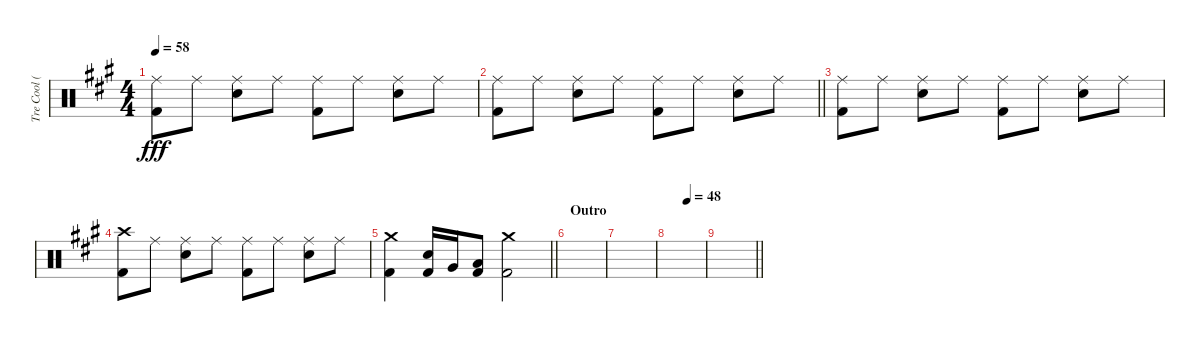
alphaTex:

\track ("Tre Cool (Drums)" "Tre Cool (") {instrument percussion}
\staff {score}
\articulation defaults
\ts (4 4)
\tempo 58
\clef neutral
\ks a
("Ride (middle)" "Kick (hit) 2").8{dy fff} "Ride (middle)".8 ("Ride (middle)" "Electric Snare (hit)").8 "Ride (middle)".8 ("Ride (middle)" "Kick (hit) 2").8 "Ride (middle)".8 ("Ride (middle)" "Electric Snare (hit)").8 "Ride (middle)".8 |
\barLineRight lightlight
("Ride (middle)" "Kick (hit) 2").8 "Ride (middle)".8 ("Ride (middle)" "Electric Snare (hit)").8 "Ride (middle)".8 ("Ride (middle)" "Kick (hit) 2").8 "Ride (middle)".8 ("Ride (middle)" "Electric Snare (hit)").8 "Ride (middle)".8 |
("Ride (middle)" "Kick (hit) 2").8 "Ride (middle)".8 ("Ride (middle)" "Electric Snare (hit)").8 "Ride (middle)".8 ("Ride (middle)" "Kick (hit) 2").8 "Ride (middle)".8 ("Ride (middle)" "Electric Snare (hit)").8 "Ride (middle)".8 |
("Crash high (hit)" "Kick (hit) 2").8 "Ride (middle)".8 ("Ride (middle)" "Electric Snare (hit)").8 "Ride (middle)".8 ("Ride (middle)" "Kick (hit) 2").8 "Ride (middle)".8 ("Ride (middle)" "Electric Snare (hit)").8 "Ride (middle)".8 |
\barLineRight lightlight
("Crash medium (hit)" "Kick (hit) 2").4 ("Electric Snare (hit)" "Kick (hit) 2").16 "Very Low Tom (hit)".16 ("Low Tom (hit)" "Kick (hit) 2").8 ("Crash medium (hit)" "Kick (hit) 2").2 |
\section ("" "Outro")
|
|
\tempo (48 0.5)
|
\barLineRight lightlight
